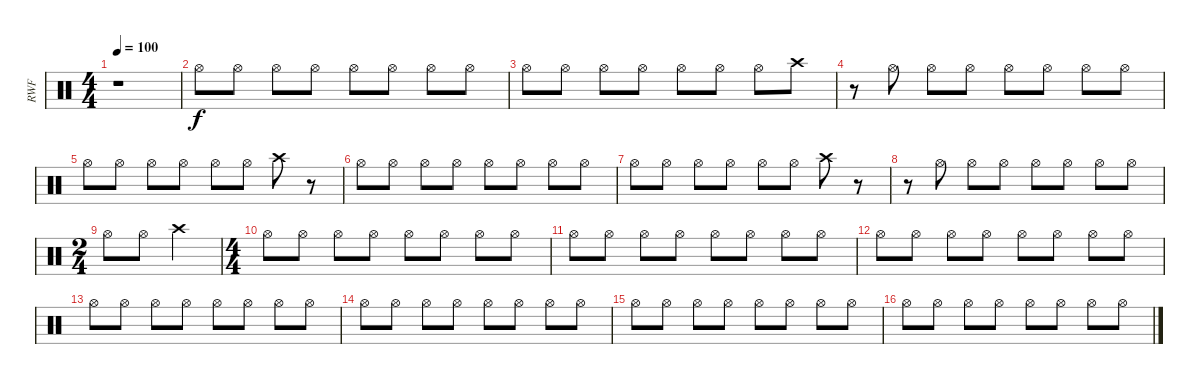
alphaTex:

\track ("RWF" "RWF") {instrument percussion}
\staff {score}
\articulation defaults
\ts (4 4)
\tempo 100
\clef neutral
\ks c
r.1{dy mp} |
"Hi-Hat (open)".8{dy f} "Hi-Hat (open)".8 "Hi-Hat (open)".8 "Hi-Hat (open)".8 "Hi-Hat (open)".8 "Hi-Hat (open)".8 "Hi-Hat (open)".8 "Hi-Hat (open)".8 |
"Hi-Hat (open)".8 "Hi-Hat (open)".8 "Hi-Hat (open)".8 "Hi-Hat (open)".8 "Hi-Hat (open)".8 "Hi-Hat (open)".8 "Hi-Hat (open)".8 "Crash high (hit)".8 |
r.8 "Hi-Hat (open)".8 "Hi-Hat (open)".8 "Hi-Hat (open)".8 "Hi-Hat (open)".8 "Hi-Hat (open)".8 "Hi-Hat (open)".8 "Hi-Hat (open)".8 |
"Hi-Hat (open)".8 "Hi-Hat (open)".8 "Hi-Hat (open)".8 "Hi-Hat (open)".8 "Hi-Hat (open)".8 "Hi-Hat (open)".8 "Crash high (hit)".8 r.8 |
"Hi-Hat (open)".8 "Hi-Hat (open)".8 "Hi-Hat (open)".8 "Hi-Hat (open)".8 "Hi-Hat (open)".8 "Hi-Hat (open)".8 "Hi-Hat (open)".8 "Hi-Hat (open)".8 |
"Hi-Hat (open)".8 "Hi-Hat (open)".8 "Hi-Hat (open)".8 "Hi-Hat (open)".8 "Hi-Hat (open)".8 "Hi-Hat (open)".8 "Crash high (hit)".8 r.8 |
r.8 "Hi-Hat (open)".8 "Hi-Hat (open)".8 "Hi-Hat (open)".8 "Hi-Hat (open)".8 "Hi-Hat (open)".8 "Hi-Hat (open)".8 "Hi-Hat (open)".8 |
\ts (2 4)
"Hi-Hat (open)".8 "Hi-Hat (open)".8 "Crash high (hit)".4 |
\ts (4 4)
"Hi-Hat (open)".8 "Hi-Hat (open)".8 "Hi-Hat (open)".8 "Hi-Hat (open)".8 "Hi-Hat (open)".8 "Hi-Hat (open)".8 "Hi-Hat (open)".8 "Hi-Hat (open)".8 |
"Hi-Hat (open)".8 "Hi-Hat (open)".8 "Hi-Hat (open)".8 "Hi-Hat (open)".8 "Hi-Hat (open)".8 "Hi-Hat (open)".8 "Hi-Hat (open)".8 "Hi-Hat (open)".8 |
"Hi-Hat (open)".8 "Hi-Hat (open)".8 "Hi-Hat (open)".8 "Hi-Hat (open)".8 "Hi-Hat (open)".8 "Hi-Hat (open)".8 "Hi-Hat (open)".8 "Hi-Hat (open)".8 |
"Hi-Hat (open)".8 "Hi-Hat (open)".8 "Hi-Hat (open)".8 "Hi-Hat (open)".8 "Hi-Hat (open)".8 "Hi-Hat (open)".8 "Hi-Hat (open)".8 "Hi-Hat (open)".8 |
"Hi-Hat (open)".8 "Hi-Hat (open)".8 "Hi-Hat (open)".8 "Hi-Hat (open)".8 "Hi-Hat (open)".8 "Hi-Hat (open)".8 "Hi-Hat (open)".8 "Hi-Hat (open)".8 |
"Hi-Hat (open)".8 "Hi-Hat (open)".8 "Hi-Hat (open)".8 "Hi-Hat (open)".8 "Hi-Hat (open)".8 "Hi-Hat (open)".8 "Hi-Hat (open)".8 "Hi-Hat (open)".8 |
"Hi-Hat (open)".8 "Hi-Hat (open)".8 "Hi-Hat (open)".8 "Hi-Hat (open)".8 "Hi-Hat (open)".8 "Hi-Hat (open)".8 "Hi-Hat (open)".8 "Hi-Hat (open)".8
